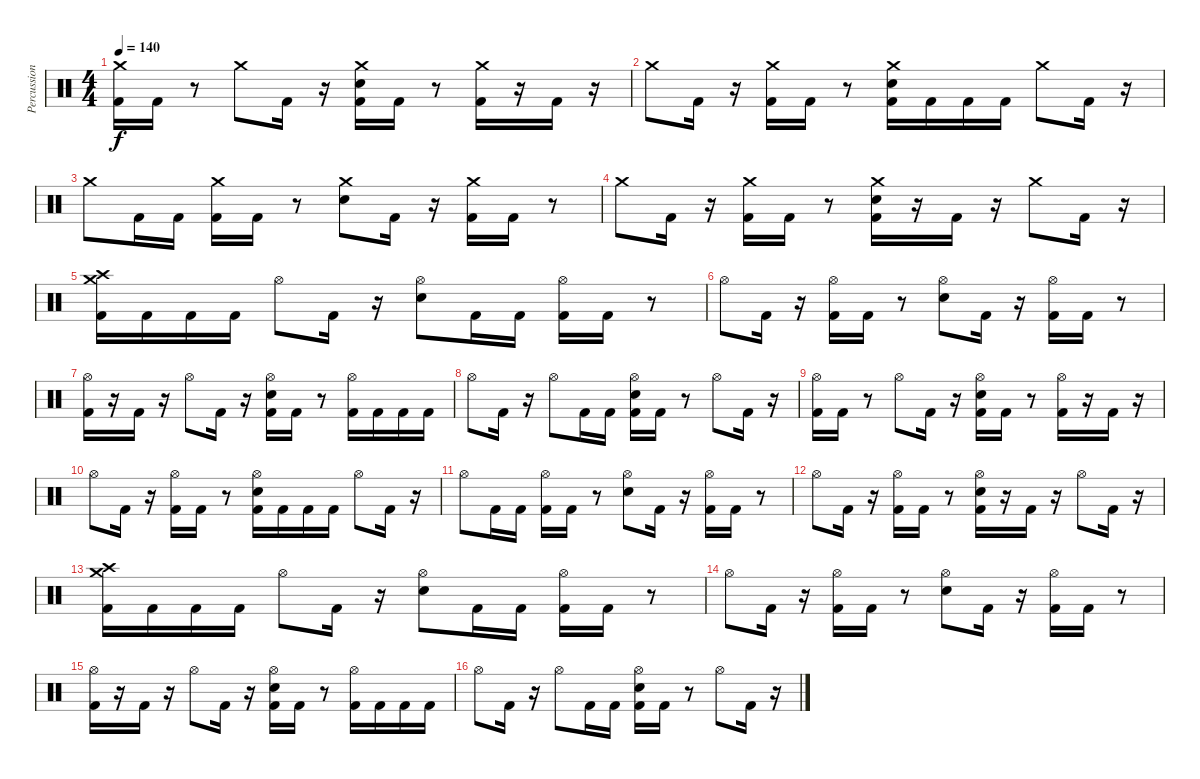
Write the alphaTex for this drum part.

\track ("Percussion" "Percussion") {instrument percussion}
\staff {score}
\articulation defaults
\ts (4 4)
\tempo 140
\clef neutral
\ks c
("Crash medium (hit)" "Kick (hit) 2").16{dy f} "Kick (hit) 2".16 r.8 "Crash medium (hit)".8 "Kick (hit) 2".16 r.16 ("Crash medium (hit)" "Snare (hit) 2" "Kick (hit) 2").16 "Kick (hit) 2".16 r.8 ("Crash medium (hit)" "Kick (hit) 2").16 r.16 "Kick (hit) 2".16 r.16 |
"Crash medium (hit)".8 "Kick (hit) 2".16 r.16 ("Crash medium (hit)" "Kick (hit) 2").16 "Kick (hit) 2".16 r.8 ("Crash medium (hit)" "Snare (hit) 2" "Kick (hit) 2").16 "Kick (hit) 2".16 "Kick (hit) 2".16 "Kick (hit) 2".16 "Crash medium (hit)".8 "Kick (hit) 2".16 r.16 |
"Crash medium (hit)".8 "Kick (hit) 2".16 "Kick (hit) 2".16 ("Crash medium (hit)" "Kick (hit) 2").16 "Kick (hit) 2".16 r.8 ("Crash medium (hit)" "Snare (hit) 2").8 "Kick (hit) 2".16 r.16 ("Crash medium (hit)" "Kick (hit) 2").16 "Kick (hit) 2".16 r.8 |
"Crash medium (hit)".8 "Kick (hit) 2".16 r.16 ("Crash medium (hit)" "Kick (hit) 2").16 "Kick (hit) 2".16 r.8 ("Crash medium (hit)" "Snare (hit) 2" "Kick (hit) 2").16 r.16 "Kick (hit) 2".16 r.16 "Crash medium (hit)".8 "Kick (hit) 2".16 r.16 |
("Crash medium (hit)" "Crash high (hit)" "Kick (hit) 2").16 "Kick (hit) 2".16 "Kick (hit) 2".16 "Kick (hit) 2".16 "Hi-Hat (open)".8 "Kick (hit) 2".16 r.16 ("Hi-Hat (open)" "Snare (hit) 2").8 "Kick (hit) 2".16 "Kick (hit) 2".16 ("Hi-Hat (open)" "Kick (hit) 2").16 "Kick (hit) 2".16 r.8 |
"Hi-Hat (open)".8 "Kick (hit) 2".16 r.16 ("Hi-Hat (open)" "Kick (hit) 2").16 "Kick (hit) 2".16 r.8 ("Hi-Hat (open)" "Snare (hit) 2").8 "Kick (hit) 2".16 r.16 ("Hi-Hat (open)" "Kick (hit) 2").16 "Kick (hit) 2".16 r.8 |
("Hi-Hat (open)" "Kick (hit) 2").16 r.16 "Kick (hit) 2".16 r.16 "Hi-Hat (open)".8 "Kick (hit) 2".16 r.16 ("Hi-Hat (open)" "Snare (hit) 2" "Kick (hit) 2").16 "Kick (hit) 2".16 r.8 ("Hi-Hat (open)" "Kick (hit) 2").16 "Kick (hit) 2".16 "Kick (hit) 2".16 "Kick (hit) 2".16 |
"Hi-Hat (open)".8 "Kick (hit) 2".16 r.16 "Hi-Hat (open)".8 "Kick (hit) 2".16 "Kick (hit) 2".16 ("Hi-Hat (open)" "Snare (hit) 2" "Kick (hit) 2").16 "Kick (hit) 2".16 r.8 "Hi-Hat (open)".8 "Kick (hit) 2".16 r.16 |
("Hi-Hat (open)" "Kick (hit) 2").16 "Kick (hit) 2".16 r.8 "Hi-Hat (open)".8 "Kick (hit) 2".16 r.16 ("Hi-Hat (open)" "Snare (hit) 2" "Kick (hit) 2").16 "Kick (hit) 2".16 r.8 ("Hi-Hat (open)" "Kick (hit) 2").16 r.16 "Kick (hit) 2".16 r.16 |
"Hi-Hat (open)".8 "Kick (hit) 2".16 r.16 ("Hi-Hat (open)" "Kick (hit) 2").16 "Kick (hit) 2".16 r.8 ("Hi-Hat (open)" "Snare (hit) 2" "Kick (hit) 2").16 "Kick (hit) 2".16 "Kick (hit) 2".16 "Kick (hit) 2".16 "Hi-Hat (open)".8 "Kick (hit) 2".16 r.16 |
"Hi-Hat (open)".8 "Kick (hit) 2".16 "Kick (hit) 2".16 ("Hi-Hat (open)" "Kick (hit) 2").16 "Kick (hit) 2".16 r.8 ("Hi-Hat (open)" "Snare (hit) 2").8 "Kick (hit) 2".16 r.16 ("Hi-Hat (open)" "Kick (hit) 2").16 "Kick (hit) 2".16 r.8 |
"Hi-Hat (open)".8 "Kick (hit) 2".16 r.16 ("Hi-Hat (open)" "Kick (hit) 2").16 "Kick (hit) 2".16 r.8 ("Hi-Hat (open)" "Snare (hit) 2" "Kick (hit) 2").16 r.16 "Kick (hit) 2".16 r.16 "Hi-Hat (open)".8 "Kick (hit) 2".16 r.16 |
("Crash medium (hit)" "Crash high (hit)" "Kick (hit) 2").16 "Kick (hit) 2".16 "Kick (hit) 2".16 "Kick (hit) 2".16 "Hi-Hat (open)".8 "Kick (hit) 2".16 r.16 ("Hi-Hat (open)" "Snare (hit) 2").8 "Kick (hit) 2".16 "Kick (hit) 2".16 ("Hi-Hat (open)" "Kick (hit) 2").16 "Kick (hit) 2".16 r.8 |
"Hi-Hat (open)".8 "Kick (hit) 2".16 r.16 ("Hi-Hat (open)" "Kick (hit) 2").16 "Kick (hit) 2".16 r.8 ("Hi-Hat (open)" "Snare (hit) 2").8 "Kick (hit) 2".16 r.16 ("Hi-Hat (open)" "Kick (hit) 2").16 "Kick (hit) 2".16 r.8 |
("Hi-Hat (open)" "Kick (hit) 2").16 r.16 "Kick (hit) 2".16 r.16 "Hi-Hat (open)".8 "Kick (hit) 2".16 r.16 ("Hi-Hat (open)" "Snare (hit) 2" "Kick (hit) 2").16 "Kick (hit) 2".16 r.8 ("Hi-Hat (open)" "Kick (hit) 2").16 "Kick (hit) 2".16 "Kick (hit) 2".16 "Kick (hit) 2".16 |
"Hi-Hat (open)".8 "Kick (hit) 2".16 r.16 "Hi-Hat (open)".8 "Kick (hit) 2".16 "Kick (hit) 2".16 ("Hi-Hat (open)" "Snare (hit) 2" "Kick (hit) 2").16 "Kick (hit) 2".16 r.8 "Hi-Hat (open)".8 "Kick (hit) 2".16 r.16
